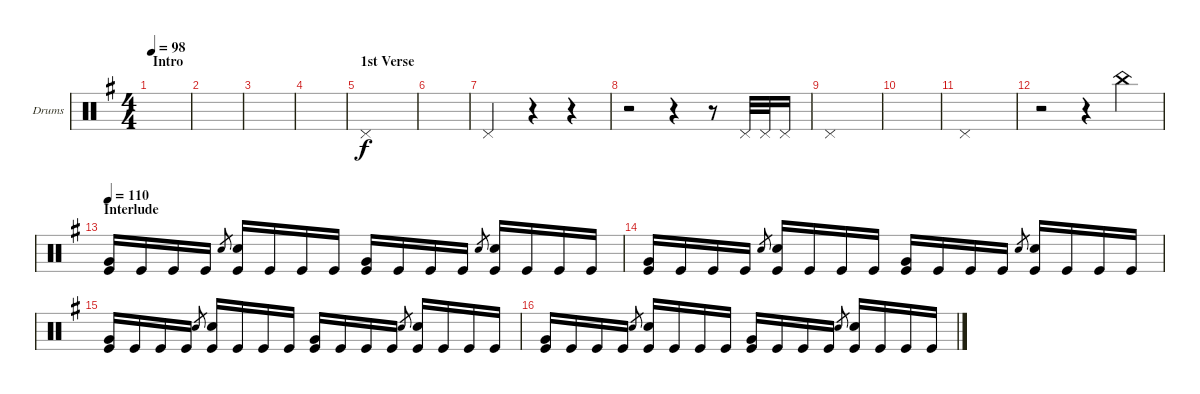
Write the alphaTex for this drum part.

\defaultSystemsLayout 4
\bracketExtendMode groupsimilarinstruments
\firstSystemTrackNameOrientation horizontal
\otherSystemsTrackNameOrientation horizontal
\track ("Drums" "Drums") {instrument percussion}
\staff {score}
\articulation defaults
\ts (4 4)
\section ("" "Intro")
\tempo 98
\clef neutral
\ks eminor
|
|
|
|
\section ("" "1st Verse")
"Pedal Hi-Hat (hit)".1 |
|
"Pedal Hi-Hat (hit)".2 r.4 r.4 |
r.2 r.4 r.8 "Pedal Hi-Hat (hit)".32 "Pedal Hi-Hat (hit)".32 "Pedal Hi-Hat (hit)".16 |
"Pedal Hi-Hat (hit)".1 |
|
"Pedal Hi-Hat (hit)".1 |
r.2 r.4 "China (hit)".4 |
\section ("" "Interlude")
\tempo 110
("Kick (hit)" "Very Low Tom (hit)").16 "Kick (hit)".16 "Kick (hit)".16 "Kick (hit)".16 "Snare (hit) 2".8{gr} ("Kick (hit)" "Snare (hit) 2").16 "Kick (hit)".16 "Kick (hit)".16 "Kick (hit)".16 ("Kick (hit)" "Very Low Tom (hit)").16 "Kick (hit)".16 "Kick (hit)".16 "Kick (hit)".16 "Snare (hit) 2".8{gr} ("Kick (hit)" "Snare (hit) 2").16 "Kick (hit)".16 "Kick (hit)".16 "Kick (hit)".16 |
("Kick (hit)" "Very Low Tom (hit)").16 "Kick (hit)".16 "Kick (hit)".16 "Kick (hit)".16 "Snare (hit) 2".8{gr} ("Kick (hit)" "Snare (hit) 2").16 "Kick (hit)".16 "Kick (hit)".16 "Kick (hit)".16 ("Kick (hit)" "Very Low Tom (hit)").16 "Kick (hit)".16 "Kick (hit)".16 "Kick (hit)".16 "Snare (hit) 2".8{gr} ("Kick (hit)" "Snare (hit) 2").16 "Kick (hit)".16 "Kick (hit)".16 "Kick (hit)".16 |
("Kick (hit)" "Very Low Tom (hit)").16 "Kick (hit)".16 "Kick (hit)".16 "Kick (hit)".16 "Snare (hit) 2".8{gr} ("Kick (hit)" "Snare (hit) 2").16 "Kick (hit)".16 "Kick (hit)".16 "Kick (hit)".16 ("Kick (hit)" "Very Low Tom (hit)").16 "Kick (hit)".16 "Kick (hit)".16 "Kick (hit)".16 "Snare (hit) 2".8{gr} ("Kick (hit)" "Snare (hit) 2").16 "Kick (hit)".16 "Kick (hit)".16 "Kick (hit)".16 |
("Kick (hit)" "Very Low Tom (hit)").16 "Kick (hit)".16 "Kick (hit)".16 "Kick (hit)".16 "Snare (hit) 2".8{gr} ("Kick (hit)" "Snare (hit) 2").16 "Kick (hit)".16 "Kick (hit)".16 "Kick (hit)".16 ("Kick (hit)" "Very Low Tom (hit)").16 "Kick (hit)".16 "Kick (hit)".16 "Kick (hit)".16 "Snare (hit) 2".8{gr} ("Kick (hit)" "Snare (hit) 2").16 "Kick (hit)".16 "Kick (hit)".16 "Kick (hit)".16
